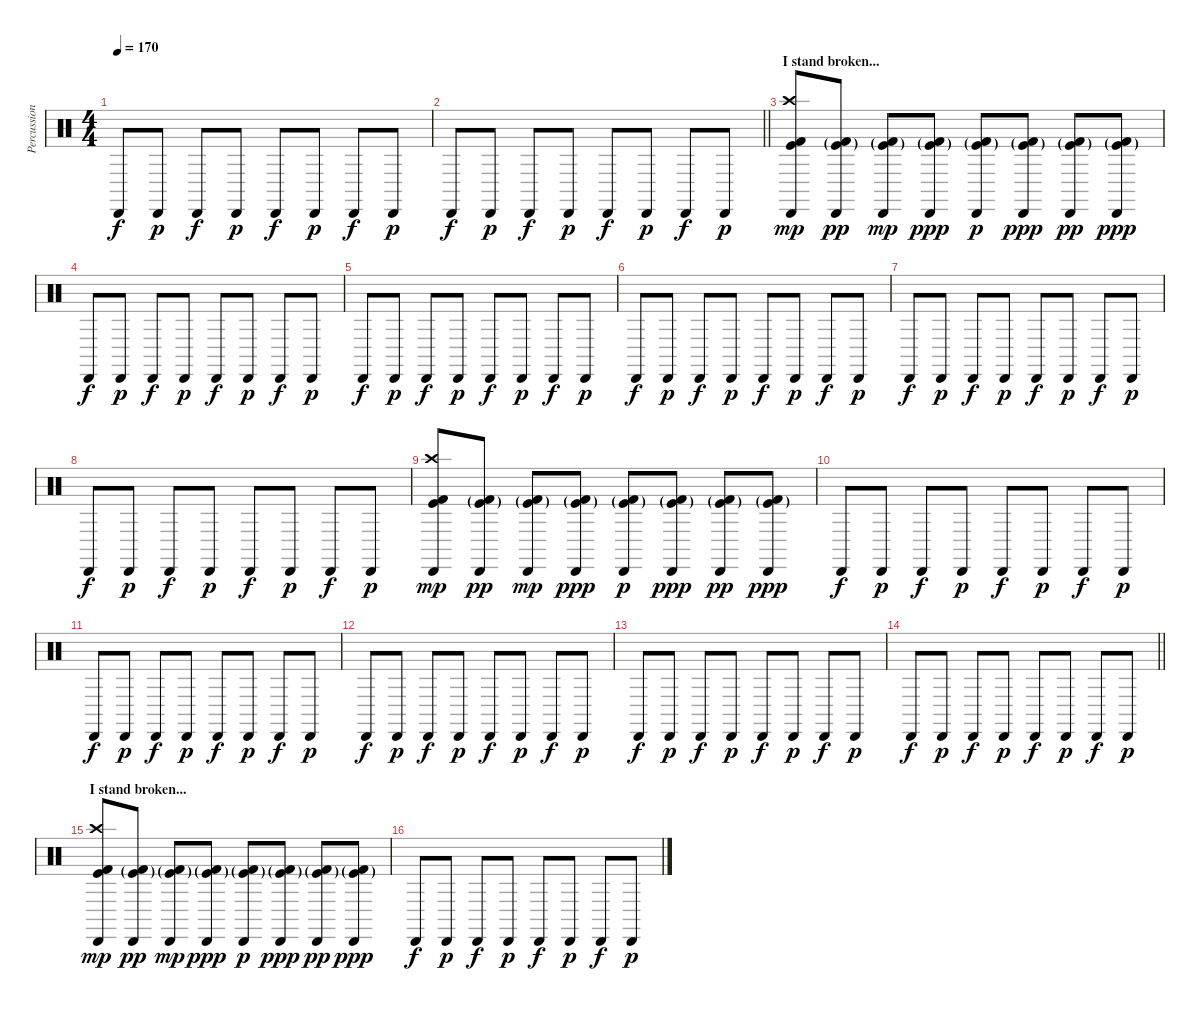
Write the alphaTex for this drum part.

\track ("Percussion" "Percussion") {instrument percussion}
\staff {score}
\articulation defaults
\ts (4 4)
\tempo 170
\clef neutral
\ks c "Cabasa (hit)".8{dy f} "Cabasa (hit)".8{dy p} "Cabasa (hit)".8{dy f} "Cabasa (hit)".8{dy p} "Cabasa (hit)".8{dy f} "Cabasa (hit)".8{dy p} "Cabasa (hit)".8{dy f} "Cabasa (hit)".8{dy p}
|
\barLineRight lightlight "Cabasa (hit)".8{dy f} "Cabasa (hit)".8{dy p} "Cabasa (hit)".8{dy f} "Cabasa (hit)".8{dy p} "Cabasa (hit)".8{dy f} "Cabasa (hit)".8{dy p} "Cabasa (hit)".8{dy f} "Cabasa (hit)".8{dy p}
|
\section ("" "I stand broken...")
("Cabasa (hit)" "Kick (hit)" "Kick (hit) 2" "Crash high (hit)").8{dy mp} ("Cabasa (hit)" "Kick (hit)"{g} "Kick (hit) 2"{g}).8{dy pp} ("Cabasa (hit)" "Kick (hit)"{g} "Kick (hit) 2"{g}).8{dy mp} ("Cabasa (hit)" "Kick (hit)"{g} "Kick (hit) 2"{g}).8{dy ppp} ("Cabasa (hit)" "Kick (hit)"{g} "Kick (hit) 2"{g}).8{dy p} ("Cabasa (hit)" "Kick (hit)"{g} "Kick (hit) 2"{g}).8{dy ppp} ("Cabasa (hit)" "Kick (hit)"{g} "Kick (hit) 2"{g}).8{dy pp} ("Cabasa (hit)" "Kick (hit)"{g} "Kick (hit) 2"{g}).8{dy ppp} |
"Cabasa (hit)".8{dy f} "Cabasa (hit)".8{dy p} "Cabasa (hit)".8{dy f} "Cabasa (hit)".8{dy p} "Cabasa (hit)".8{dy f} "Cabasa (hit)".8{dy p} "Cabasa (hit)".8{dy f} "Cabasa (hit)".8{dy p} |
"Cabasa (hit)".8{dy f} "Cabasa (hit)".8{dy p} "Cabasa (hit)".8{dy f} "Cabasa (hit)".8{dy p} "Cabasa (hit)".8{dy f} "Cabasa (hit)".8{dy p} "Cabasa (hit)".8{dy f} "Cabasa (hit)".8{dy p} |
"Cabasa (hit)".8{dy f} "Cabasa (hit)".8{dy p} "Cabasa (hit)".8{dy f} "Cabasa (hit)".8{dy p} "Cabasa (hit)".8{dy f} "Cabasa (hit)".8{dy p} "Cabasa (hit)".8{dy f} "Cabasa (hit)".8{dy p} |
"Cabasa (hit)".8{dy f} "Cabasa (hit)".8{dy p} "Cabasa (hit)".8{dy f} "Cabasa (hit)".8{dy p} "Cabasa (hit)".8{dy f} "Cabasa (hit)".8{dy p} "Cabasa (hit)".8{dy f} "Cabasa (hit)".8{dy p} |
"Cabasa (hit)".8{dy f} "Cabasa (hit)".8{dy p} "Cabasa (hit)".8{dy f} "Cabasa (hit)".8{dy p} "Cabasa (hit)".8{dy f} "Cabasa (hit)".8{dy p} "Cabasa (hit)".8{dy f} "Cabasa (hit)".8{dy p} |
("Cabasa (hit)" "Kick (hit)" "Kick (hit) 2" "Crash high (hit)").8{dy mp} ("Cabasa (hit)" "Kick (hit)"{g} "Kick (hit) 2"{g}).8{dy pp} ("Cabasa (hit)" "Kick (hit)"{g} "Kick (hit) 2"{g}).8{dy mp} ("Cabasa (hit)" "Kick (hit)"{g} "Kick (hit) 2"{g}).8{dy ppp} ("Cabasa (hit)" "Kick (hit)"{g} "Kick (hit) 2"{g}).8{dy p} ("Cabasa (hit)" "Kick (hit)"{g} "Kick (hit) 2"{g}).8{dy ppp} ("Cabasa (hit)" "Kick (hit)"{g} "Kick (hit) 2"{g}).8{dy pp} ("Cabasa (hit)" "Kick (hit)"{g} "Kick (hit) 2"{g}).8{dy ppp} |
"Cabasa (hit)".8{dy f} "Cabasa (hit)".8{dy p} "Cabasa (hit)".8{dy f} "Cabasa (hit)".8{dy p} "Cabasa (hit)".8{dy f} "Cabasa (hit)".8{dy p} "Cabasa (hit)".8{dy f} "Cabasa (hit)".8{dy p} |
"Cabasa (hit)".8{dy f} "Cabasa (hit)".8{dy p} "Cabasa (hit)".8{dy f} "Cabasa (hit)".8{dy p} "Cabasa (hit)".8{dy f} "Cabasa (hit)".8{dy p} "Cabasa (hit)".8{dy f} "Cabasa (hit)".8{dy p} |
"Cabasa (hit)".8{dy f} "Cabasa (hit)".8{dy p} "Cabasa (hit)".8{dy f} "Cabasa (hit)".8{dy p} "Cabasa (hit)".8{dy f} "Cabasa (hit)".8{dy p} "Cabasa (hit)".8{dy f} "Cabasa (hit)".8{dy p} |
"Cabasa (hit)".8{dy f} "Cabasa (hit)".8{dy p} "Cabasa (hit)".8{dy f} "Cabasa (hit)".8{dy p} "Cabasa (hit)".8{dy f} "Cabasa (hit)".8{dy p} "Cabasa (hit)".8{dy f} "Cabasa (hit)".8{dy p} |
\barLineRight lightlight "Cabasa (hit)".8{dy f} "Cabasa (hit)".8{dy p} "Cabasa (hit)".8{dy f} "Cabasa (hit)".8{dy p} "Cabasa (hit)".8{dy f} "Cabasa (hit)".8{dy p} "Cabasa (hit)".8{dy f} "Cabasa (hit)".8{dy p}
|
\section ("" "I stand broken...")
("Cabasa (hit)" "Kick (hit)" "Kick (hit) 2" "Crash high (hit)").8{dy mp} ("Cabasa (hit)" "Kick (hit)"{g} "Kick (hit) 2"{g}).8{dy pp} ("Cabasa (hit)" "Kick (hit)"{g} "Kick (hit) 2"{g}).8{dy mp} ("Cabasa (hit)" "Kick (hit)"{g} "Kick (hit) 2"{g}).8{dy ppp} ("Cabasa (hit)" "Kick (hit)"{g} "Kick (hit) 2"{g}).8{dy p} ("Cabasa (hit)" "Kick (hit)"{g} "Kick (hit) 2"{g}).8{dy ppp} ("Cabasa (hit)" "Kick (hit)"{g} "Kick (hit) 2"{g}).8{dy pp} ("Cabasa (hit)" "Kick (hit)"{g} "Kick (hit) 2"{g}).8{dy ppp} |
"Cabasa (hit)".8{dy f} "Cabasa (hit)".8{dy p} "Cabasa (hit)".8{dy f} "Cabasa (hit)".8{dy p} "Cabasa (hit)".8{dy f} "Cabasa (hit)".8{dy p} "Cabasa (hit)".8{dy f} "Cabasa (hit)".8{dy p}
